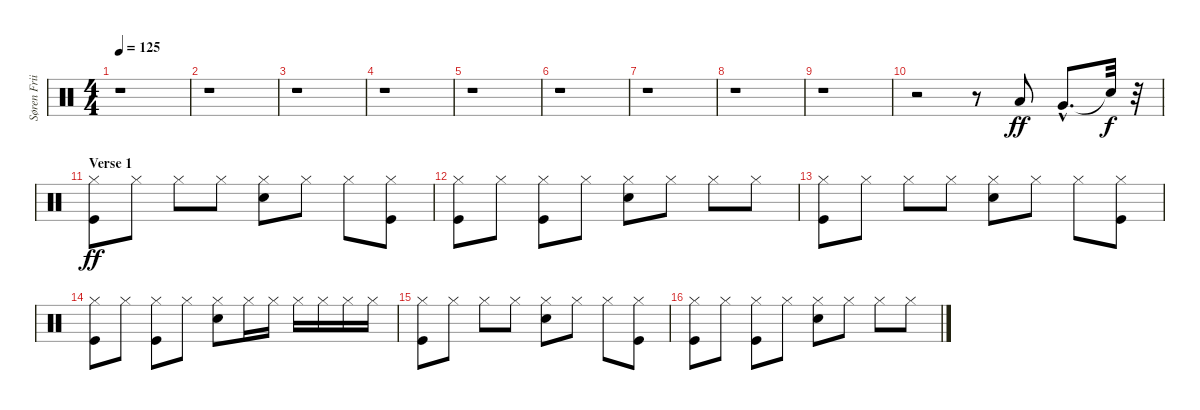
\track ("Søren Friis - Drums" "Søren Frii") {instrument percussion}
\staff {score}
\articulation defaults
\ts (4 4)
\tempo 125
\clef neutral
\ks c
r.1{dy ff} |
r.1 |
r.1 |
r.1 |
r.1 |
r.1 |
r.1 |
r.1 |
r.1 |
r.2 r.8 "Low Tom (hit)".8 "Very Low Tom (hit)"{hac}.8{d} "Snare (hit)"{t}.32{dy f} r.32 |
\section ("" "Verse 1")
("Kick (hit)" "Hi-Hat (closed)").8{dy ff} "Hi-Hat (closed)".8 "Hi-Hat (closed)".8 "Hi-Hat (closed)".8 ("Snare (hit) 2" "Hi-Hat (closed)").8 "Hi-Hat (closed)".8 "Hi-Hat (closed)".8 ("Kick (hit)" "Hi-Hat (closed)").8 |
("Kick (hit)" "Hi-Hat (closed)").8 "Hi-Hat (closed)".8 ("Kick (hit)" "Hi-Hat (closed)").8 "Hi-Hat (closed)".8 ("Snare (hit) 2" "Hi-Hat (closed)").8 "Hi-Hat (closed)".8 "Hi-Hat (closed)".8 "Hi-Hat (closed)".8 |
("Kick (hit)" "Hi-Hat (closed)").8 "Hi-Hat (closed)".8 "Hi-Hat (closed)".8 "Hi-Hat (closed)".8 ("Snare (hit) 2" "Hi-Hat (closed)").8 "Hi-Hat (closed)".8 "Hi-Hat (closed)".8 ("Kick (hit)" "Hi-Hat (closed)").8 |
("Kick (hit)" "Hi-Hat (closed)").8 "Hi-Hat (closed)".8 ("Kick (hit)" "Hi-Hat (closed)").8 "Hi-Hat (closed)".8 ("Snare (hit) 2" "Hi-Hat (closed)").8 "Hi-Hat (closed)".16 "Hi-Hat (closed)".16 "Hi-Hat (closed)".16 "Hi-Hat (closed)".16 "Hi-Hat (closed)".16 "Hi-Hat (closed)".16 |
("Kick (hit)" "Hi-Hat (closed)").8 "Hi-Hat (closed)".8 "Hi-Hat (closed)".8 "Hi-Hat (closed)".8 ("Snare (hit) 2" "Hi-Hat (closed)").8 "Hi-Hat (closed)".8 "Hi-Hat (closed)".8 ("Kick (hit)" "Hi-Hat (closed)").8 |
("Kick (hit)" "Hi-Hat (closed)").8 "Hi-Hat (closed)".8 ("Kick (hit)" "Hi-Hat (closed)").8 "Hi-Hat (closed)".8 ("Snare (hit) 2" "Hi-Hat (closed)").8 "Hi-Hat (closed)".8 "Hi-Hat (closed)".8 "Hi-Hat (closed)".8
